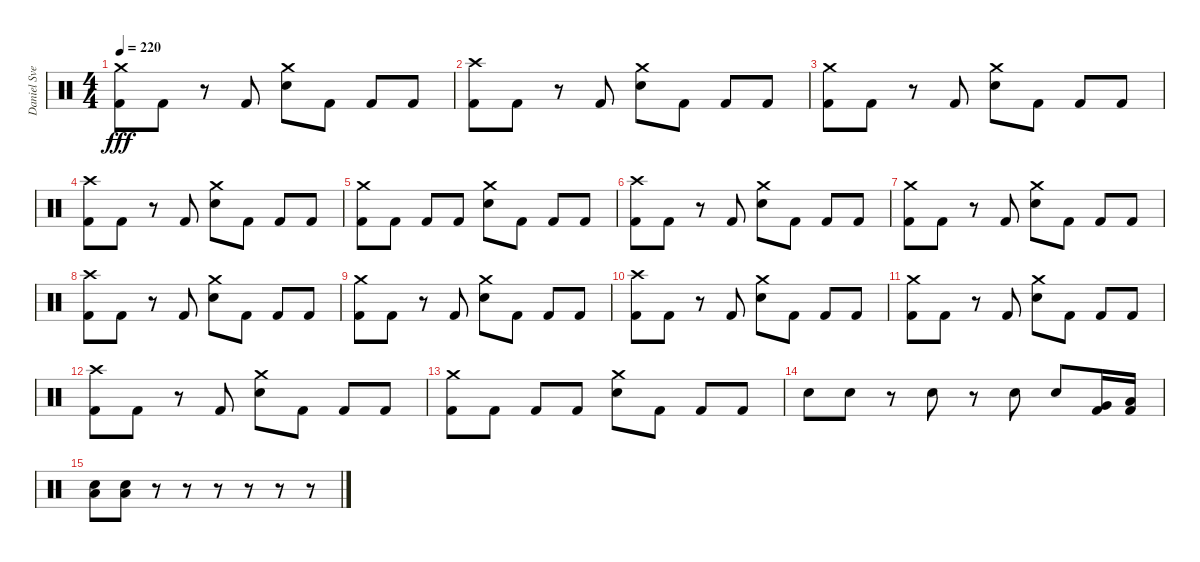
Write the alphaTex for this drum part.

\track ("Daniel Svensson" "Daniel Sve") {instrument percussion}
\staff {score}
\articulation defaults
\ts (4 4)
\tempo 220
\clef neutral
\ks c
("Crash medium (hit)" "Kick (hit) 2").8{dy fff} "Kick (hit) 2".8 r.8 "Kick (hit) 2".8 ("Crash medium (hit)" "Electric Snare (hit)").8 "Kick (hit) 2".8 "Kick (hit) 2".8 "Kick (hit) 2".8 |
("Crash high (hit)" "Kick (hit) 2").8 "Kick (hit) 2".8 r.8 "Kick (hit) 2".8 ("Crash medium (hit)" "Electric Snare (hit)").8 "Kick (hit) 2".8 "Kick (hit) 2".8 "Kick (hit) 2".8 |
("Crash medium (hit)" "Kick (hit) 2").8 "Kick (hit) 2".8 r.8 "Kick (hit) 2".8 ("Crash medium (hit)" "Electric Snare (hit)").8 "Kick (hit) 2".8 "Kick (hit) 2".8 "Kick (hit) 2".8 |
("Crash high (hit)" "Kick (hit) 2").8 "Kick (hit) 2".8 r.8 "Kick (hit) 2".8 ("Crash medium (hit)" "Electric Snare (hit)").8 "Kick (hit) 2".8 "Kick (hit) 2".8 "Kick (hit) 2".8 |
("Crash medium (hit)" "Kick (hit) 2").8 "Kick (hit) 2".8 "Kick (hit) 2".8 "Kick (hit) 2".8 ("Crash medium (hit)" "Electric Snare (hit)").8 "Kick (hit) 2".8 "Kick (hit) 2".8 "Kick (hit) 2".8 |
("Crash high (hit)" "Kick (hit) 2").8 "Kick (hit) 2".8 r.8 "Kick (hit) 2".8 ("Crash medium (hit)" "Electric Snare (hit)").8 "Kick (hit) 2".8 "Kick (hit) 2".8 "Kick (hit) 2".8 |
("Crash medium (hit)" "Kick (hit) 2").8 "Kick (hit) 2".8 r.8 "Kick (hit) 2".8 ("Crash medium (hit)" "Electric Snare (hit)").8 "Kick (hit) 2".8 "Kick (hit) 2".8 "Kick (hit) 2".8 |
("Crash high (hit)" "Kick (hit) 2").8 "Kick (hit) 2".8 r.8 "Kick (hit) 2".8 ("Crash medium (hit)" "Electric Snare (hit)").8 "Kick (hit) 2".8 "Kick (hit) 2".8 "Kick (hit) 2".8 |
("Crash medium (hit)" "Kick (hit) 2").8 "Kick (hit) 2".8 r.8 "Kick (hit) 2".8 ("Crash medium (hit)" "Electric Snare (hit)").8 "Kick (hit) 2".8 "Kick (hit) 2".8 "Kick (hit) 2".8 |
("Crash high (hit)" "Kick (hit) 2").8 "Kick (hit) 2".8 r.8 "Kick (hit) 2".8 ("Crash medium (hit)" "Electric Snare (hit)").8 "Kick (hit) 2".8 "Kick (hit) 2".8 "Kick (hit) 2".8 |
("Crash medium (hit)" "Kick (hit) 2").8 "Kick (hit) 2".8 r.8 "Kick (hit) 2".8 ("Crash medium (hit)" "Electric Snare (hit)").8 "Kick (hit) 2".8 "Kick (hit) 2".8 "Kick (hit) 2".8 |
("Crash high (hit)" "Kick (hit) 2").8 "Kick (hit) 2".8 r.8 "Kick (hit) 2".8 ("Crash medium (hit)" "Electric Snare (hit)").8 "Kick (hit) 2".8 "Kick (hit) 2".8 "Kick (hit) 2".8 |
("Crash medium (hit)" "Kick (hit) 2").8 "Kick (hit) 2".8 "Kick (hit) 2".8 "Kick (hit) 2".8 ("Crash medium (hit)" "Electric Snare (hit)").8 "Kick (hit) 2".8 "Kick (hit) 2".8 "Kick (hit) 2".8 |
"Electric Snare (hit)".8 "Electric Snare (hit)".8 r.8 "Electric Snare (hit)".8 r.8 "Electric Snare (hit)".8 "Electric Snare (hit)".8 ("Very Low Tom (hit)" "Kick (hit) 2").16 ("Low Floor Tom (hit)" "Kick (hit) 2").16 |
("Low Floor Tom (hit)" "Electric Snare (hit)").8 ("Low Floor Tom (hit)" "Electric Snare (hit)").8 r.8 r.8 r.8 r.8 r.8 r.8
